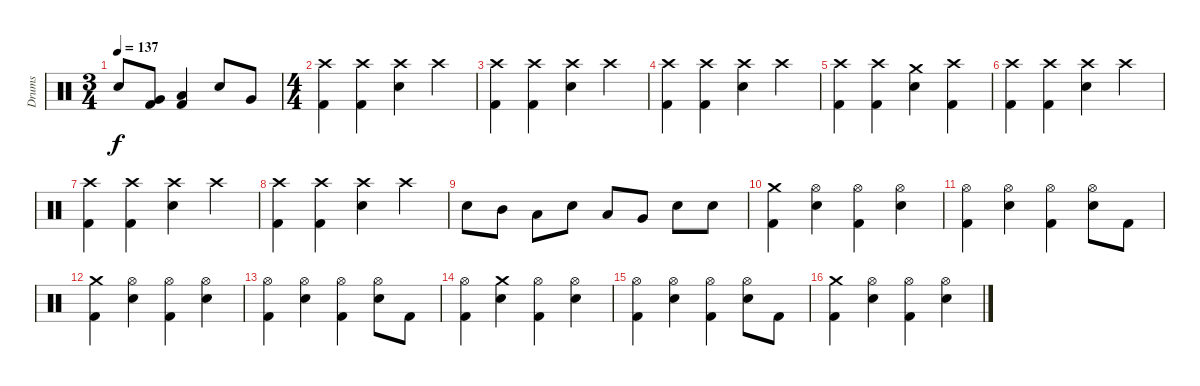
\track ("Drums" "Drums") {instrument percussion}
\staff {score}
\articulation defaults
\ts (3 4)
\tempo 137
\clef neutral
\ks c "Snare (hit) 2".8{dy f}
("Very Low Tom (hit)" "Kick (hit) 2").8 ("Low Floor Tom (hit)" "Kick (hit) 2").4 "Snare (hit) 2".8 "Very Low Tom (hit)".8 |
\ts (4 4)
("Crash high (hit)" "Kick (hit) 2").4 ("Crash high (hit)" "Kick (hit) 2").4 ("Crash high (hit)" "Snare (hit) 2").4 "Crash high (hit)".4 |
("Crash high (hit)" "Kick (hit) 2").4 ("Crash high (hit)" "Kick (hit) 2").4 ("Crash high (hit)" "Snare (hit) 2").4 "Crash high (hit)".4 |
("Crash high (hit)" "Kick (hit) 2").4 ("Crash high (hit)" "Kick (hit) 2").4 ("Crash high (hit)" "Snare (hit) 2").4 "Crash high (hit)".4 |
("Crash high (hit)" "Kick (hit) 2").4 ("Crash high (hit)" "Kick (hit) 2").4 ("Crash medium (hit)" "Snare (hit) 2").4 ("Crash high (hit)" "Kick (hit) 2").4 |
("Crash high (hit)" "Kick (hit) 2").4 ("Crash high (hit)" "Kick (hit) 2").4 ("Crash high (hit)" "Snare (hit) 2").4 "Crash high (hit)".4 |
("Crash high (hit)" "Kick (hit) 2").4 ("Crash high (hit)" "Kick (hit) 2").4 ("Crash high (hit)" "Snare (hit) 2").4 "Crash high (hit)".4 |
("Crash high (hit)" "Kick (hit) 2").4 ("Crash high (hit)" "Kick (hit) 2").4 ("Crash high (hit)" "Snare (hit) 2").4 "Crash high (hit)".4 |
"Snare (hit) 2".8 "Mid Tom (hit)".8 "Low Tom (hit)".8 "Snare (hit) 2".8 "Low Tom (hit)".8 "Very Low Tom (hit)".8 "Snare (hit) 2".8 "Snare (hit) 2".8 |
("Crash medium (hit)" "Kick (hit) 2").4 ("Hi-Hat (open)" "Snare (hit) 2").4 ("Hi-Hat (open)" "Kick (hit) 2").4 ("Hi-Hat (open)" "Snare (hit) 2").4 |
("Hi-Hat (open)" "Kick (hit) 2").4 ("Hi-Hat (open)" "Snare (hit) 2").4 ("Hi-Hat (open)" "Kick (hit) 2").4 ("Hi-Hat (open)" "Snare (hit) 2").8 "Kick (hit) 2".8 |
("Crash medium (hit)" "Kick (hit) 2").4 ("Hi-Hat (open)" "Snare (hit) 2").4 ("Hi-Hat (open)" "Kick (hit) 2").4 ("Hi-Hat (open)" "Snare (hit) 2").4 |
("Hi-Hat (open)" "Kick (hit) 2").4 ("Hi-Hat (open)" "Snare (hit) 2").4 ("Hi-Hat (open)" "Kick (hit) 2").4 ("Hi-Hat (open)" "Snare (hit) 2").8 "Kick (hit) 2".8 |
("Hi-Hat (open)" "Kick (hit) 2").4 ("Crash medium (hit)" "Snare (hit) 2").4 ("Hi-Hat (open)" "Kick (hit) 2").4 ("Hi-Hat (open)" "Snare (hit) 2").4 |
("Hi-Hat (open)" "Kick (hit) 2").4 ("Hi-Hat (open)" "Snare (hit) 2").4 ("Hi-Hat (open)" "Kick (hit) 2").4 ("Hi-Hat (open)" "Snare (hit) 2").8 "Kick (hit) 2".8 |
("Crash medium (hit)" "Kick (hit) 2").4 ("Hi-Hat (open)" "Snare (hit) 2").4 ("Hi-Hat (open)" "Kick (hit) 2").4 ("Hi-Hat (open)" "Snare (hit) 2").4
